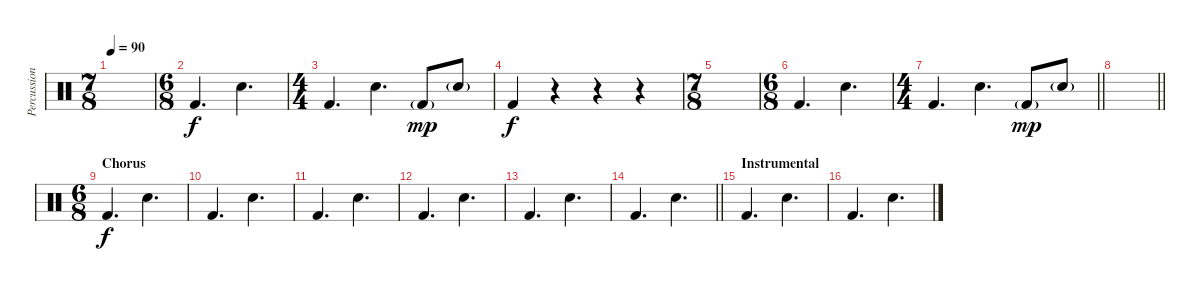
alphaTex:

\track ("Percussion" "Percussion") {instrument percussion}
\staff {score}
\articulation defaults
\ts (7 8)
\tempo 90
\clef neutral
\ks c
|
\ts (6 8)
"Kick (hit) 2".4{d} "Snare (hit) 2".4{d} |
\ts (4 4)
"Kick (hit) 2".4{d} "Snare (hit) 2".4{d} "Kick (hit) 2"{g}.8{dy mp} "Snare (hit) 2"{g}.8 |
"Kick (hit) 2".4{dy f} r.4 r.4 r.4 |
\ts (7 8)
|
\ts (6 8)
"Kick (hit) 2".4{d} "Snare (hit) 2".4{d} |
\ts (4 4)
\barLineRight lightlight "Kick (hit) 2".4{d} "Snare (hit) 2".4{d} "Kick (hit) 2"{g}.8{dy mp} "Snare (hit) 2"{g}.8
|
\barLineRight lightlight
|
\ts (6 8)
\section ("" "Chorus")
"Kick (hit) 2".4{d dy f} "Snare (hit) 2".4{d} |
"Kick (hit) 2".4{d} "Snare (hit) 2".4{d} |
"Kick (hit) 2".4{d} "Snare (hit) 2".4{d} |
"Kick (hit) 2".4{d} "Snare (hit) 2".4{d} |
"Kick (hit) 2".4{d} "Snare (hit) 2".4{d} |
\barLineRight lightlight "Kick (hit) 2".4{d} "Snare (hit) 2".4{d}
|
\section ("" "Instrumental")
"Kick (hit) 2".4{d} "Snare (hit) 2".4{d} |
"Kick (hit) 2".4{d} "Snare (hit) 2".4{d}
